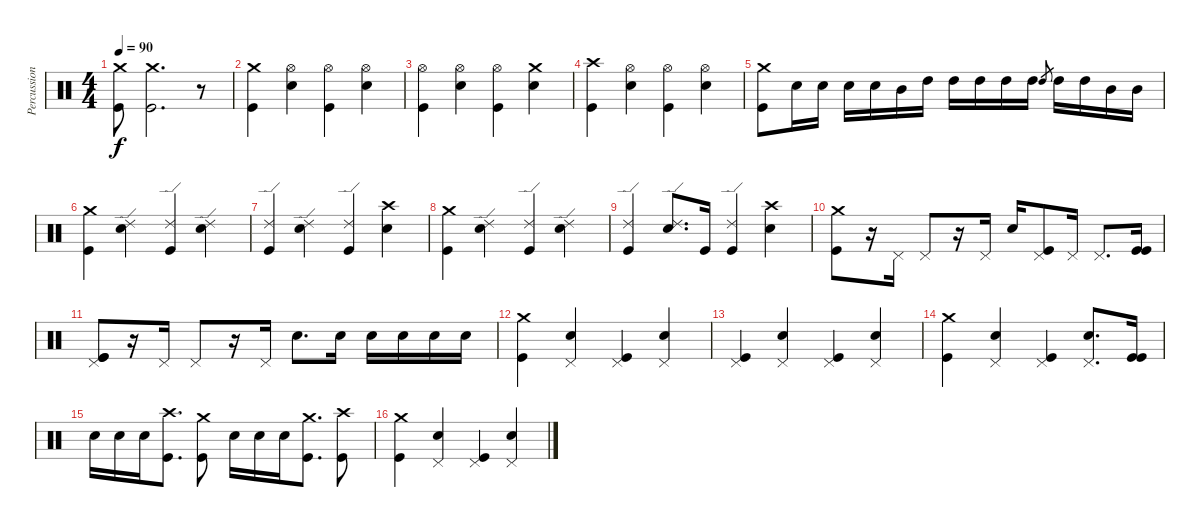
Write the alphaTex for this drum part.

\track ("Percussion" "Percussion") {instrument percussion}
\staff {score}
\articulation defaults
\ts (4 4)
\tempo 90
\clef neutral
\ks c
("Crash medium (hit)" "Kick (hit)").8{dy f} ("Crash medium (hit)" "Kick (hit)").2{d} r.8 |
("Crash medium (hit)" "Kick (hit)").4 ("Hi-Hat (open)" "Snare (hit) 2").4 ("Hi-Hat (open)" "Kick (hit)").4 ("Hi-Hat (open)" "Snare (hit) 2").4 |
("Hi-Hat (open)" "Kick (hit)").4 ("Hi-Hat (open)" "Snare (hit) 2").4 ("Hi-Hat (open)" "Kick (hit)").4 ("Crash medium (hit)" "Snare (hit) 2").4 |
("Crash high (hit)" "Kick (hit)").4 ("Hi-Hat (open)" "Snare (hit) 2").4 ("Hi-Hat (open)" "Kick (hit)").4 ("Hi-Hat (open)" "Snare (hit) 2").4 |
("Crash medium (hit)" "Kick (hit)").8 "Snare (hit) 2".16 "Snare (hit) 2".16 "Snare (hit) 2".16 "Snare (hit) 2".16 "Mid Tom (hit)".16 "High Tom (hit)".16 "High Tom (hit)".16 "High Tom (hit)".16 "High Tom (hit)".16 "High Tom (hit)".16 "High Tom (hit)".8{gr} "High Tom (hit)".16 "High Tom (hit)".16 "Mid Tom (hit)".16 "Mid Tom (hit)".16 |
("Crash medium (hit)" "Kick (hit)").4 ("Ride (edge) 2" "Snare (hit) 2").4 ("Ride (edge) 2" "Kick (hit)").4 ("Ride (edge) 2" "Snare (hit) 2").4 |
("Ride (edge) 2" "Kick (hit)").4 ("Ride (edge) 2" "Snare (hit) 2").4 ("Ride (edge) 2" "Kick (hit)").4 ("Crash high (hit)" "Snare (hit) 2").4 |
("Crash medium (hit)" "Kick (hit)").4 ("Ride (edge) 2" "Snare (hit) 2").4 ("Ride (edge) 2" "Kick (hit)").4 ("Ride (edge) 2" "Snare (hit) 2").4 |
("Ride (edge) 2" "Kick (hit)").4 ("Ride (edge) 2" "Snare (hit) 2").8{d} "Kick (hit)".16 ("Ride (edge) 2" "Kick (hit)").4 ("Crash high (hit)" "Snare (hit) 2").4 |
("Crash medium (hit)" "Kick (hit)").8 r.16 "Pedal Hi-Hat (hit)".16 "Pedal Hi-Hat (hit)".8 r.16 "Pedal Hi-Hat (hit)".16 "Snare (hit) 2".16 ("Pedal Hi-Hat (hit)" "Kick (hit)").8 "Pedal Hi-Hat (hit)".16 "Pedal Hi-Hat (hit)".8{d} ("Kick (hit)" "Kick (hit)").16 |
("Pedal Hi-Hat (hit)" "Kick (hit)" "Kick (hit)").8 r.16 "Pedal Hi-Hat (hit)".16 "Pedal Hi-Hat (hit)".8 r.16 "Pedal Hi-Hat (hit)".16 "Snare (hit) 2".8{d} "Snare (hit) 2".16 "Snare (hit) 2".16 "Snare (hit) 2".16 "Snare (hit) 2".16 "Snare (hit) 2".16 |
("Crash medium (hit)" "Kick (hit)").4 ("Pedal Hi-Hat (hit)" "Snare (hit) 2").4 ("Pedal Hi-Hat (hit)" "Kick (hit)").4 ("Pedal Hi-Hat (hit)" "Snare (hit) 2").4 |
("Pedal Hi-Hat (hit)" "Kick (hit)").4 ("Pedal Hi-Hat (hit)" "Snare (hit) 2").4 ("Pedal Hi-Hat (hit)" "Kick (hit)").4 ("Pedal Hi-Hat (hit)" "Snare (hit) 2").4 |
("Crash medium (hit)" "Kick (hit)").4 ("Pedal Hi-Hat (hit)" "Snare (hit) 2").4 ("Pedal Hi-Hat (hit)" "Kick (hit)").4 ("Pedal Hi-Hat (hit)" "Snare (hit) 2").8{d} ("Kick (hit)" "Kick (hit)").16 |
"Snare (hit) 2".16 "Snare (hit) 2".16 "Snare (hit) 2".16 ("Crash high (hit)" "Kick (hit)").8{d} ("Crash medium (hit)" "Kick (hit)").8 "Snare (hit) 2".16 "Snare (hit) 2".16 "Snare (hit) 2".16 ("Crash medium (hit)" "Kick (hit)").8{d} ("Crash high (hit)" "Kick (hit)").8 |
("Crash medium (hit)" "Kick (hit)").4 ("Pedal Hi-Hat (hit)" "Snare (hit) 2").4 ("Pedal Hi-Hat (hit)" "Kick (hit)").4 ("Pedal Hi-Hat (hit)" "Snare (hit) 2").4
